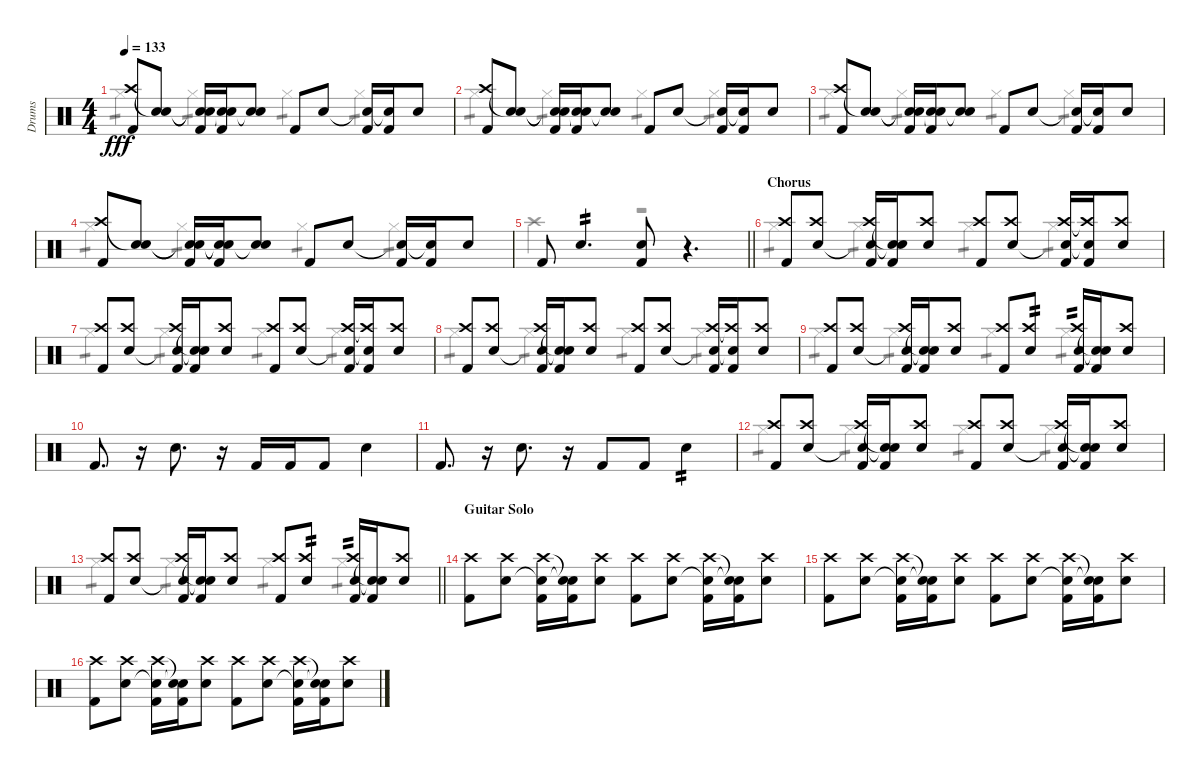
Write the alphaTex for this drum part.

\track ("Drums" "Drums") {instrument percussion}
\staff
\articulation defaults
\voice
\ts (4 4)
\tempo 133
\clef neutral
\ks c
("Crash high (hit)" "Kick (hit) 2").8{dy fff} ("Snare (hit)"{t} "Electric Snare (hit)").8 ("Snare (hit)"{t} "Electric Snare (hit)"{t} "Kick (hit) 2").16 ("Snare (hit)"{t} "Electric Snare (hit)"{t} "Kick (hit) 2").16 ("Snare (hit)"{t} "Electric Snare (hit)").8 "Kick (hit) 2".8 "Electric Snare (hit)".8 ("Electric Snare (hit)"{t} "Kick (hit) 2").16 ("Electric Snare (hit)"{t} "Kick (hit) 2").16 "Electric Snare (hit)".8 |
("Crash high (hit)" "Kick (hit) 2").8 ("Snare (hit)"{t} "Electric Snare (hit)").8 ("Snare (hit)"{t} "Electric Snare (hit)"{t} "Kick (hit) 2").16 ("Snare (hit)"{t} "Electric Snare (hit)"{t} "Kick (hit) 2").16 ("Snare (hit)"{t} "Electric Snare (hit)").8 "Kick (hit) 2".8 "Electric Snare (hit)".8 ("Electric Snare (hit)"{t} "Kick (hit) 2").16 ("Electric Snare (hit)"{t} "Kick (hit) 2").16 "Electric Snare (hit)".8 |
("Crash high (hit)" "Kick (hit) 2").8 ("Snare (hit)"{t} "Electric Snare (hit)").8 ("Snare (hit)"{t} "Electric Snare (hit)"{t} "Kick (hit) 2").16 ("Snare (hit)"{t} "Electric Snare (hit)"{t} "Kick (hit) 2").16 ("Snare (hit)"{t} "Electric Snare (hit)").8 "Kick (hit) 2".8 "Electric Snare (hit)".8 ("Electric Snare (hit)"{t} "Kick (hit) 2").16 ("Electric Snare (hit)"{t} "Kick (hit) 2").16 "Electric Snare (hit)".8 |
("Crash high (hit)" "Kick (hit) 2").8 ("Snare (hit)"{t} "Electric Snare (hit)").8 ("Snare (hit)"{t} "Electric Snare (hit)"{t} "Kick (hit) 2").16 ("Snare (hit)"{t} "Electric Snare (hit)"{t} "Kick (hit) 2").16 ("Snare (hit)"{t} "Electric Snare (hit)").8 "Kick (hit) 2".8 "Electric Snare (hit)".8 ("Electric Snare (hit)"{t} "Kick (hit) 2").16 ("Electric Snare (hit)"{t} "Kick (hit) 2").16 "Electric Snare (hit)".8 |
\barLineRight lightlight "Kick (hit) 2".8 "Electric Snare (hit)".4{d tp 2}
("Electric Snare (hit)" "Kick (hit) 2").8 r.4{d} |
\section ("" "Chorus")
("Crash high (hit)" "Kick (hit) 2").8 ("Crash high (hit)" "Electric Snare (hit)").8 ("Crash high (hit)" "Electric Snare (hit)"{t} "Kick (hit) 2").16 ("Snare (hit)"{t} "Electric Snare (hit)"{t} "Kick (hit) 2").16 ("Crash high (hit)" "Electric Snare (hit)").8 ("Crash high (hit)" "Kick (hit) 2").8 ("Crash high (hit)" "Electric Snare (hit)").8 ("Crash high (hit)" "Electric Snare (hit)"{t} "Kick (hit) 2").16 ("Crash high (hit)"{t} "Electric Snare (hit)"{t} "Kick (hit) 2").16 ("Crash high (hit)" "Electric Snare (hit)").8 |
("Crash high (hit)" "Kick (hit) 2").8 ("Crash high (hit)" "Electric Snare (hit)").8 ("Crash high (hit)" "Electric Snare (hit)"{t} "Kick (hit) 2").16 ("Snare (hit)"{t} "Electric Snare (hit)"{t} "Kick (hit) 2").16 ("Crash high (hit)" "Electric Snare (hit)").8 ("Crash high (hit)" "Kick (hit) 2").8 ("Crash high (hit)" "Electric Snare (hit)").8 ("Crash high (hit)" "Electric Snare (hit)"{t} "Kick (hit) 2").16 ("Crash high (hit)"{t} "Electric Snare (hit)"{t} "Kick (hit) 2").16 ("Crash high (hit)" "Electric Snare (hit)").8 |
("Crash high (hit)" "Kick (hit) 2").8 ("Crash high (hit)" "Electric Snare (hit)").8 ("Crash high (hit)" "Electric Snare (hit)"{t} "Kick (hit) 2").16 ("Snare (hit)"{t} "Electric Snare (hit)"{t} "Kick (hit) 2").16 ("Crash high (hit)" "Electric Snare (hit)").8 ("Crash high (hit)" "Kick (hit) 2").8 ("Crash high (hit)" "Electric Snare (hit)").8 ("Crash high (hit)" "Electric Snare (hit)"{t} "Kick (hit) 2").16 ("Crash high (hit)"{t} "Electric Snare (hit)"{t} "Kick (hit) 2").16 ("Crash high (hit)" "Electric Snare (hit)").8 |
("Crash high (hit)" "Kick (hit) 2").8 ("Crash high (hit)" "Electric Snare (hit)").8 ("Crash high (hit)" "Electric Snare (hit)"{t} "Kick (hit) 2").16 ("Snare (hit)"{t} "Electric Snare (hit)"{t} "Kick (hit) 2").16 ("Crash high (hit)" "Electric Snare (hit)").8 ("Crash high (hit)" "Kick (hit) 2").8 ("Crash high (hit)" "Electric Snare (hit)").8{tp 2} ("Crash high (hit)" "Electric Snare (hit)" "Kick (hit) 2").16{tp 2} ("Snare (hit)"{t} "Electric Snare (hit)"{t} "Kick (hit) 2").16 ("Crash high (hit)" "Electric Snare (hit)").8 |
"Kick (hit) 2".8{d} r.16 "Electric Snare (hit)".8{d} r.16 "Kick (hit) 2".16 "Kick (hit) 2".16 "Kick (hit) 2".8 "Electric Snare (hit)".4 |
"Kick (hit) 2".8{d} r.16 "Electric Snare (hit)".8{d} r.16 "Kick (hit) 2".8 "Kick (hit) 2".8 "Electric Snare (hit)".4{tp 2} |
("Crash high (hit)" "Kick (hit) 2").8 ("Crash high (hit)" "Electric Snare (hit)").8 ("Crash high (hit)" "Electric Snare (hit)"{t} "Kick (hit) 2").16 ("Snare (hit)"{t} "Electric Snare (hit)"{t} "Kick (hit) 2").16 ("Crash high (hit)" "Electric Snare (hit)").8 ("Crash high (hit)" "Kick (hit) 2").8 ("Crash high (hit)" "Electric Snare (hit)").8 ("Crash high (hit)" "Electric Snare (hit)"{t} "Kick (hit) 2").16 ("Snare (hit)"{t} "Electric Snare (hit)"{t} "Kick (hit) 2").16 ("Crash high (hit)" "Electric Snare (hit)").8 |
\barLineRight lightlight
("Crash high (hit)" "Kick (hit) 2").8 ("Crash high (hit)" "Electric Snare (hit)").8 ("Crash high (hit)" "Electric Snare (hit)"{t} "Kick (hit) 2").16 ("Snare (hit)"{t} "Electric Snare (hit)"{t} "Kick (hit) 2").16 ("Crash high (hit)" "Electric Snare (hit)").8 ("Crash high (hit)" "Kick (hit) 2").8 ("Crash high (hit)" "Electric Snare (hit)").8{tp 2} ("Crash high (hit)" "Electric Snare (hit)" "Kick (hit) 2").16{tp 2} ("Snare (hit)"{t} "Electric Snare (hit)"{t} "Kick (hit) 2").16 ("Crash high (hit)" "Electric Snare (hit)").8 |
\section ("" "Guitar Solo")
("Crash high (hit)" "Kick (hit) 2").8 ("Crash high (hit)" "Electric Snare (hit)").8 ("Crash high (hit)" "Electric Snare (hit)"{t} "Kick (hit) 2").16 ("Snare (hit)"{t} "Electric Snare (hit)"{t} "Kick (hit) 2").16 ("Crash high (hit)" "Electric Snare (hit)").8 ("Crash high (hit)" "Kick (hit) 2").8 ("Crash high (hit)" "Electric Snare (hit)").8 ("Crash high (hit)" "Electric Snare (hit)"{t} "Kick (hit) 2").16 ("Snare (hit)"{t} "Electric Snare (hit)"{t} "Kick (hit) 2").16 ("Crash high (hit)" "Electric Snare (hit)").8 |
("Crash high (hit)" "Kick (hit) 2").8 ("Crash high (hit)" "Electric Snare (hit)").8 ("Crash high (hit)" "Electric Snare (hit)"{t} "Kick (hit) 2").16 ("Snare (hit)"{t} "Electric Snare (hit)"{t} "Kick (hit) 2").16 ("Crash high (hit)" "Electric Snare (hit)").8 ("Crash high (hit)" "Kick (hit) 2").8 ("Crash high (hit)" "Electric Snare (hit)").8 ("Crash high (hit)" "Electric Snare (hit)"{t} "Kick (hit) 2").16 ("Snare (hit)"{t} "Electric Snare (hit)"{t} "Kick (hit) 2").16 ("Crash high (hit)" "Electric Snare (hit)").8 |
("Crash high (hit)" "Kick (hit) 2").8 ("Crash high (hit)" "Electric Snare (hit)").8 ("Crash high (hit)" "Electric Snare (hit)"{t} "Kick (hit) 2").16 ("Snare (hit)"{t} "Electric Snare (hit)"{t} "Kick (hit) 2").16 ("Crash high (hit)" "Electric Snare (hit)").8 ("Crash high (hit)" "Kick (hit) 2").8 ("Crash high (hit)" "Electric Snare (hit)").8 ("Crash high (hit)" "Electric Snare (hit)"{t} "Kick (hit) 2").16 ("Snare (hit)"{t} "Electric Snare (hit)"{t} "Kick (hit) 2").16 ("Crash high (hit)" "Electric Snare (hit)").8
\voice
\clef neutral
\ottava regular
\simile none
\ks c "Hi-Hat (closed)".4{tp 1 dy fff} "Hi-Hat (closed)".4{tp 1} "Hi-Hat (closed)".4{tp 1} "Hi-Hat (closed)".4{tp 1}
|
"Hi-Hat (closed)".4{tp 1} "Hi-Hat (closed)".4{tp 1} "Hi-Hat (closed)".4{tp 1} "Hi-Hat (closed)".4{tp 1} |
"Hi-Hat (closed)".4{tp 1} "Hi-Hat (closed)".4{tp 1} "Hi-Hat (closed)".4{tp 1} "Hi-Hat (closed)".4{tp 1} |
"Hi-Hat (closed)".4{tp 1} "Hi-Hat (closed)".4{tp 1} "Hi-Hat (closed)".4{tp 1} "Hi-Hat (closed)".4{tp 1} |
\barLineRight lightlight "Crash high (hit)".2
r.2 |
"Hi-Hat (closed)".4{tp 1} "Hi-Hat (closed)".4{tp 1} "Hi-Hat (closed)".4{tp 1} "Hi-Hat (closed)".4{tp 1} |
"Hi-Hat (closed)".4{tp 1} "Hi-Hat (closed)".4{tp 1} "Hi-Hat (closed)".4{tp 1} "Hi-Hat (closed)".4{tp 1} |
"Hi-Hat (closed)".4{tp 1} "Hi-Hat (closed)".4{tp 1} "Hi-Hat (closed)".4{tp 1} "Hi-Hat (closed)".4{tp 1} |
"Hi-Hat (closed)".4{tp 1} "Hi-Hat (closed)".4{tp 1} "Hi-Hat (closed)".4{tp 1} "Hi-Hat (closed)".4{tp 1} |
|
|
"Hi-Hat (closed)".4{tp 1} "Hi-Hat (closed)".4{tp 1} "Hi-Hat (closed)".4{tp 1} "Hi-Hat (closed)".4{tp 1} |
\barLineRight lightlight "Hi-Hat (closed)".4{tp 1} "Hi-Hat (closed)".4{tp 1} "Hi-Hat (closed)".4{tp 1} "Hi-Hat (closed)".4{tp 1}
|
|
|
